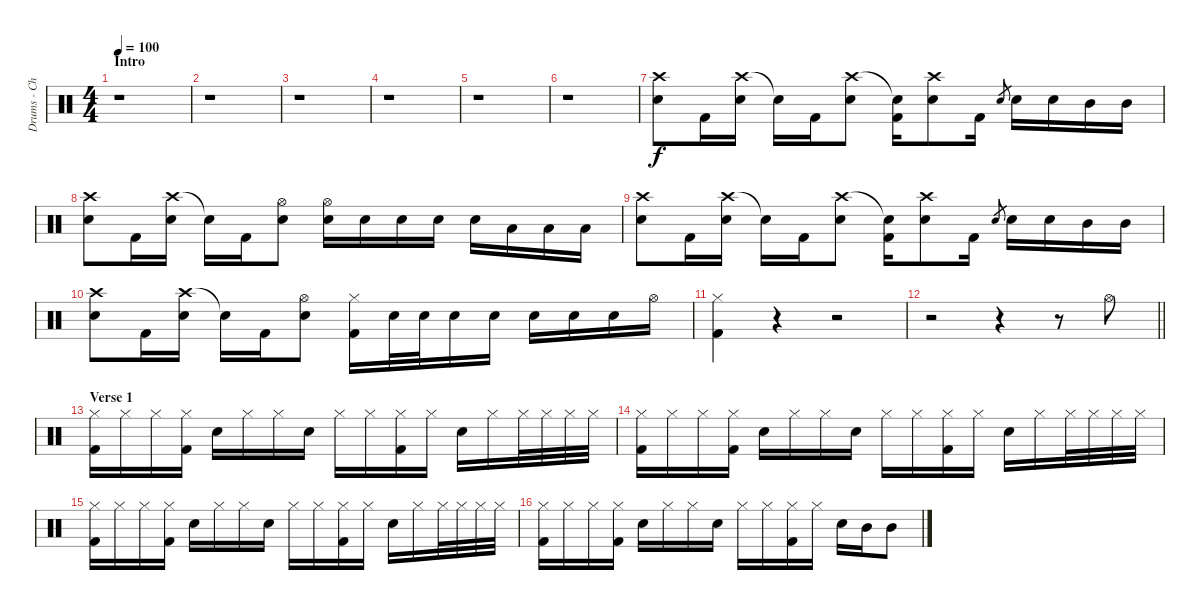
\track ("Drums - Chad" "Drums - Ch") {instrument percussion}
\staff {score}
\articulation defaults
\ts (4 4)
\section ("" "Intro")
\tempo 100
\clef neutral
\ks c
r.1{dy f} |
r.1 |
r.1 |
r.1 |
r.1 |
r.1 |
("Crash high (hit)" "Electric Snare (hit)").8 "Kick (hit) 2".16 ("Crash high (hit)" "Electric Snare (hit)").16 "Snare (hit)"{t}.16 "Kick (hit) 2".16 ("Crash high (hit)" "Electric Snare (hit)").8 ("Snare (hit)"{t} "Kick (hit) 2").16 ("Crash high (hit)" "Electric Snare (hit)").8 "Kick (hit) 2".16 "Electric Snare (hit)".8{gr} "Electric Snare (hit)".16 "Electric Snare (hit)".16 "Mid Tom (hit)".16 "Mid Tom (hit)".16 |
("Crash high (hit)" "Electric Snare (hit)").8 "Kick (hit) 2".16 ("Crash high (hit)" "Electric Snare (hit)").16 "Snare (hit)"{t}.16 "Kick (hit) 2".16 ("Hi-Hat (open)" "Electric Snare (hit)").8 ("Hi-Hat (open)" "Electric Snare (hit)").16 "Electric Snare (hit)".16 "Electric Snare (hit)".16 "Electric Snare (hit)".16 "Electric Snare (hit)".16 "Low Tom (hit)".16 "Low Tom (hit)".16 "Low Tom (hit)".16 |
("Crash high (hit)" "Electric Snare (hit)").8 "Kick (hit) 2".16 ("Crash high (hit)" "Electric Snare (hit)").16 "Snare (hit)"{t}.16 "Kick (hit) 2".16 ("Crash high (hit)" "Electric Snare (hit)").8 ("Snare (hit)"{t} "Kick (hit) 2").16 ("Crash high (hit)" "Electric Snare (hit)").8 "Kick (hit) 2".16 "Electric Snare (hit)".8{gr} "Electric Snare (hit)".16 "Electric Snare (hit)".16 "Mid Tom (hit)".16 "Mid Tom (hit)".16 |
("Crash high (hit)" "Electric Snare (hit)").8 "Kick (hit) 2".16 ("Crash high (hit)" "Electric Snare (hit)").16 "Snare (hit)"{t}.16 "Kick (hit) 2".16 ("Hi-Hat (open)" "Electric Snare (hit)").8 ("Hi-Hat (closed)" "Kick (hit) 2").16 "Electric Snare (hit)".32 "Electric Snare (hit)".32 "Electric Snare (hit)".16 "Electric Snare (hit)".16 "Electric Snare (hit)".16 "Electric Snare (hit)".16 "Electric Snare (hit)".16 "Hi-Hat (open)".16 |
("Hi-Hat (closed)" "Kick (hit) 2").4 r.4 r.2 |
\barLineRight lightlight
r.2 r.4 r.8 "Hi-Hat (open)".8 |
\section ("" "Verse 1")
("Hi-Hat (closed)" "Kick (hit) 2").16 "Hi-Hat (closed)".16 "Hi-Hat (closed)".16 ("Hi-Hat (closed)" "Kick (hit) 2").16 "Electric Snare (hit)".16 "Hi-Hat (closed)".16 "Hi-Hat (closed)".16 "Electric Snare (hit)".16 "Hi-Hat (closed)".16 "Hi-Hat (closed)".16 ("Hi-Hat (closed)" "Kick (hit) 2").16 "Hi-Hat (closed)".16 "Electric Snare (hit)".16 "Hi-Hat (closed)".16 "Hi-Hat (closed)".32 "Hi-Hat (closed)".32 "Hi-Hat (closed)".32 "Hi-Hat (closed)".32 |
("Hi-Hat (closed)" "Kick (hit) 2").16 "Hi-Hat (closed)".16 "Hi-Hat (closed)".16 ("Hi-Hat (closed)" "Kick (hit) 2").16 "Electric Snare (hit)".16 "Hi-Hat (closed)".16 "Hi-Hat (closed)".16 "Electric Snare (hit)".16 "Hi-Hat (closed)".16 "Hi-Hat (closed)".16 ("Hi-Hat (closed)" "Kick (hit) 2").16 "Hi-Hat (closed)".16 "Electric Snare (hit)".16 "Hi-Hat (closed)".16 "Hi-Hat (closed)".32 "Hi-Hat (closed)".32 "Hi-Hat (closed)".32 "Hi-Hat (closed)".32 |
("Hi-Hat (closed)" "Kick (hit) 2").16 "Hi-Hat (closed)".16 "Hi-Hat (closed)".16 ("Hi-Hat (closed)" "Kick (hit) 2").16 "Electric Snare (hit)".16 "Hi-Hat (closed)".16 "Hi-Hat (closed)".16 "Electric Snare (hit)".16 "Hi-Hat (closed)".16 "Hi-Hat (closed)".16 ("Hi-Hat (closed)" "Kick (hit) 2").16 "Hi-Hat (closed)".16 "Electric Snare (hit)".16 "Hi-Hat (closed)".16 "Hi-Hat (closed)".32 "Hi-Hat (closed)".32 "Hi-Hat (closed)".32 "Hi-Hat (closed)".32 |
("Hi-Hat (closed)" "Kick (hit) 2").16 "Hi-Hat (closed)".16 "Hi-Hat (closed)".16 ("Hi-Hat (closed)" "Kick (hit) 2").16 "Electric Snare (hit)".16 "Hi-Hat (closed)".16 "Hi-Hat (closed)".16 "Electric Snare (hit)".16 "Hi-Hat (closed)".16 "Hi-Hat (closed)".16 ("Hi-Hat (closed)" "Kick (hit) 2").16 "Hi-Hat (closed)".16 "Electric Snare (hit)".16 "Mid Tom (hit)".16 "Mid Tom (hit)".8
